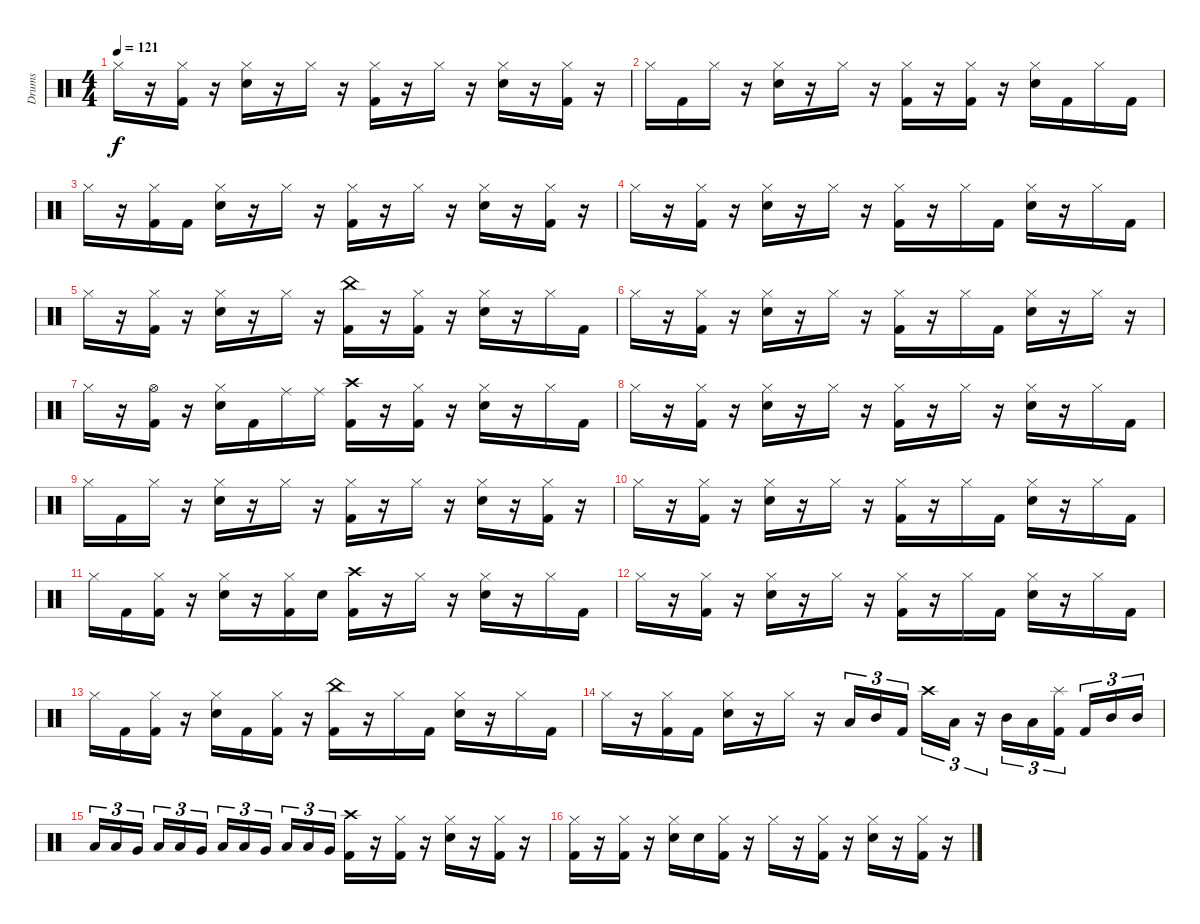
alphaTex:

\track ("Drums" "Drums") {instrument percussion}
\staff {score}
\articulation defaults
\ts (4 4)
\tempo 121
\clef neutral
\ks c "Hi-Hat (closed)".16{dy f}
r.16 ("Hi-Hat (closed)" "Kick (hit) 2").16 r.16 ("Hi-Hat (closed)" "Snare (hit) 2").16 r.16 "Hi-Hat (closed)".16 r.16 ("Hi-Hat (closed)" "Kick (hit) 2").16 r.16 "Hi-Hat (closed)".16 r.16 ("Hi-Hat (closed)" "Snare (hit) 2").16 r.16 ("Hi-Hat (closed)" "Kick (hit) 2").16 r.16 |
"Hi-Hat (closed)".16 "Kick (hit) 2".16 "Hi-Hat (closed)".16 r.16 ("Hi-Hat (closed)" "Snare (hit) 2").16 r.16 "Hi-Hat (closed)".16 r.16 ("Hi-Hat (closed)" "Kick (hit) 2").16 r.16 ("Hi-Hat (closed)" "Kick (hit) 2").16 r.16 ("Hi-Hat (closed)" "Snare (hit) 2").16 "Kick (hit) 2".16 "Hi-Hat (closed)".16 "Kick (hit) 2".16 |
"Hi-Hat (closed)".16 r.16 ("Hi-Hat (closed)" "Kick (hit) 2").16 "Kick (hit) 2".16 ("Hi-Hat (closed)" "Snare (hit) 2").16 r.16 "Hi-Hat (closed)".16 r.16 ("Hi-Hat (closed)" "Kick (hit) 2").16 r.16 "Hi-Hat (closed)".16 r.16 ("Hi-Hat (closed)" "Snare (hit) 2").16 r.16 ("Hi-Hat (closed)" "Kick (hit) 2").16 r.16 |
"Hi-Hat (closed)".16 r.16 ("Hi-Hat (closed)" "Kick (hit) 2").16 r.16 ("Hi-Hat (closed)" "Snare (hit) 2").16 r.16 "Hi-Hat (closed)".16 r.16 ("Hi-Hat (closed)" "Kick (hit) 2").16 r.16 "Hi-Hat (closed)".16 "Kick (hit) 2".16 ("Hi-Hat (closed)" "Snare (hit) 2").16 r.16 "Hi-Hat (closed)".16 "Kick (hit) 2".16 |
"Hi-Hat (closed)".16 r.16 ("Hi-Hat (closed)" "Kick (hit) 2").16 r.16 ("Hi-Hat (closed)" "Snare (hit) 2").16 r.16 "Hi-Hat (closed)".16 r.16 ("China (hit)" "Kick (hit) 2").16 r.16 ("Hi-Hat (closed)" "Kick (hit) 2").16 r.16 ("Hi-Hat (closed)" "Snare (hit) 2").16 r.16 "Hi-Hat (closed)".16 "Kick (hit) 2".16 |
"Hi-Hat (closed)".16 r.16 ("Hi-Hat (closed)" "Kick (hit) 2").16 r.16 ("Hi-Hat (closed)" "Snare (hit) 2").16 r.16 "Hi-Hat (closed)".16 r.16 ("Hi-Hat (closed)" "Kick (hit) 2").16 r.16 "Hi-Hat (closed)".16 "Kick (hit) 2".16 ("Hi-Hat (closed)" "Snare (hit) 2").16 r.16 "Hi-Hat (closed)".16 r.16 |
"Hi-Hat (closed)".16 r.16 ("Hi-Hat (open)" "Kick (hit) 2").16 r.16 ("Hi-Hat (closed)" "Snare (hit) 2").16 "Kick (hit) 2".16 "Ride (middle)".16 "Ride (middle)".16 ("Crash high (hit)" "Kick (hit) 2").16 r.16 ("Hi-Hat (closed)" "Kick (hit) 2").16 r.16 ("Hi-Hat (closed)" "Snare (hit) 2").16 r.16 "Hi-Hat (closed)".16 "Kick (hit) 2".16 |
"Hi-Hat (closed)".16 r.16 ("Hi-Hat (closed)" "Kick (hit) 2").16 r.16 ("Hi-Hat (closed)" "Snare (hit) 2").16 r.16 "Hi-Hat (closed)".16 r.16 ("Hi-Hat (closed)" "Kick (hit) 2").16 r.16 "Hi-Hat (closed)".16 r.16 ("Hi-Hat (closed)" "Snare (hit) 2").16 r.16 "Hi-Hat (closed)".16 "Kick (hit) 2".16 |
"Hi-Hat (closed)".16 "Kick (hit) 2".16 "Hi-Hat (closed)".16 r.16 ("Hi-Hat (closed)" "Snare (hit) 2").16 r.16 "Hi-Hat (closed)".16 r.16 ("Hi-Hat (closed)" "Kick (hit) 2").16 r.16 "Hi-Hat (closed)".16 r.16 ("Hi-Hat (closed)" "Snare (hit) 2").16 r.16 ("Hi-Hat (closed)" "Kick (hit) 2").16 r.16 |
"Hi-Hat (closed)".16 r.16 ("Hi-Hat (closed)" "Kick (hit) 2").16 r.16 ("Hi-Hat (closed)" "Snare (hit) 2").16 r.16 "Hi-Hat (closed)".16 r.16 ("Hi-Hat (closed)" "Kick (hit) 2").16 r.16 "Hi-Hat (closed)".16 "Kick (hit) 2".16 ("Hi-Hat (closed)" "Snare (hit) 2").16 r.16 "Hi-Hat (closed)".16 "Kick (hit) 2".16 |
"Hi-Hat (closed)".16 "Kick (hit) 2".16 ("Hi-Hat (closed)" "Kick (hit) 2").16 r.16 ("Hi-Hat (closed)" "Snare (hit) 2").16 r.16 ("Hi-Hat (closed)" "Kick (hit) 2").16 "Snare (hit) 2".16 ("Crash high (hit)" "Kick (hit) 2").16 r.16 "Hi-Hat (closed)".16 r.16 ("Hi-Hat (closed)" "Snare (hit) 2").16 r.16 "Hi-Hat (closed)".16 "Kick (hit) 2".16 |
"Hi-Hat (closed)".16 r.16 ("Hi-Hat (closed)" "Kick (hit) 2").16 r.16 ("Hi-Hat (closed)" "Snare (hit) 2").16 r.16 "Hi-Hat (closed)".16 r.16 ("Hi-Hat (closed)" "Kick (hit) 2").16 r.16 "Hi-Hat (closed)".16 "Kick (hit) 2".16 ("Hi-Hat (closed)" "Snare (hit) 2").16 r.16 "Hi-Hat (closed)".16 "Kick (hit) 2".16 |
"Hi-Hat (closed)".16 "Kick (hit) 2".16 ("Hi-Hat (closed)" "Kick (hit) 2").16 r.16 ("Hi-Hat (closed)" "Snare (hit) 2").16 "Kick (hit) 2".16 ("Hi-Hat (closed)" "Kick (hit) 2").16 r.16 ("China (hit)" "Kick (hit) 2").16 r.16 "Hi-Hat (closed)".16 "Kick (hit) 2".16 ("Hi-Hat (closed)" "Snare (hit) 2").16 r.16 "Hi-Hat (closed)".16 "Kick (hit) 2".16 |
"Hi-Hat (closed)".16 r.16 ("Hi-Hat (closed)" "Kick (hit) 2").16 "Kick (hit) 2".16 ("Hi-Hat (closed)" "Snare (hit) 2").16 r.16 "Hi-Hat (closed)".16 r.16 "Low Tom (hit)".16{tu (3 2)} "Mid Tom (hit)".16{tu (3 2)} "Kick (hit) 2".16{tu (3 2) beam splitsecondary} "Crash high (hit)".16{tu (3 2)} "Low Tom (hit)".16{tu (3 2)} r.16{tu (3 2)} "Mid Tom (hit)".16{tu (3 2)} "Low Tom (hit)".16{tu (3 2)} ("Splash (hit)" "Kick (hit) 2").16{tu (3 2) beam splitsecondary} "Kick (hit) 2".16{tu (3 2)} "Mid Tom (hit)".16{tu (3 2)} "Mid Tom (hit)".16{tu (3 2)} |
"Low Tom (hit)".16{tu (3 2)} "Low Tom (hit)".16{tu (3 2)} "Very Low Tom (hit)".16{tu (3 2) beam splitsecondary} "Low Tom (hit)".16{tu (3 2)} "Low Tom (hit)".16{tu (3 2)} "Very Low Tom (hit)".16{tu (3 2)} "Low Tom (hit)".16{tu (3 2)} "Low Tom (hit)".16{tu (3 2)} "Very Low Tom (hit)".16{tu (3 2) beam splitsecondary} "Low Tom (hit)".16{tu (3 2)} "Low Tom (hit)".16{tu (3 2)} "Very Low Tom (hit)".16{tu (3 2)} ("Crash high (hit)" "Kick (hit) 2").16 r.16 ("Hi-Hat (closed)" "Kick (hit) 2").16 r.16 ("Hi-Hat (closed)" "Snare (hit) 2").16 r.16 ("Hi-Hat (closed)" "Kick (hit) 2").16 r.16 |
("Hi-Hat (closed)" "Kick (hit) 2").16 r.16 ("Hi-Hat (closed)" "Kick (hit) 2").16 r.16 ("Hi-Hat (closed)" "Snare (hit) 2").16 "Snare (hit) 2".16 ("Hi-Hat (closed)" "Kick (hit) 2").16 r.16 "Hi-Hat (closed)".16 r.16 ("Hi-Hat (closed)" "Kick (hit) 2").16 r.16 ("Hi-Hat (closed)" "Snare (hit) 2").16 r.16 ("Hi-Hat (closed)" "Kick (hit) 2").16 r.16
